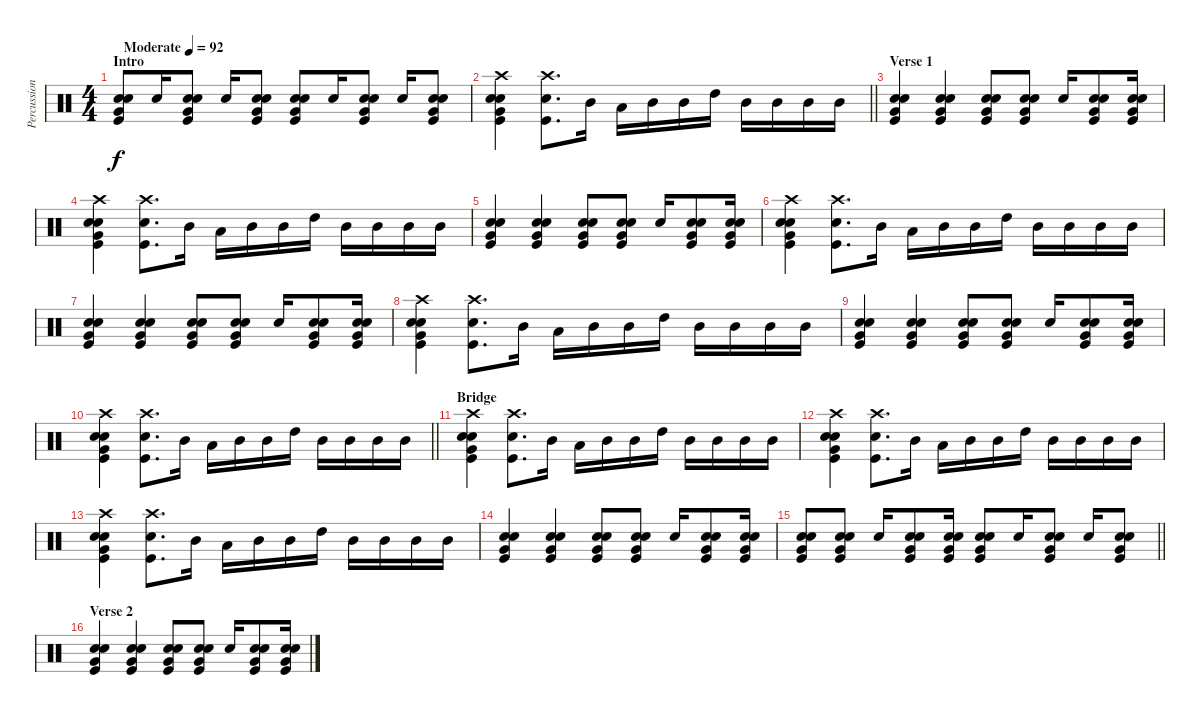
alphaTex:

\track ("Percussions" "Percussion") {instrument percussion}
\staff {score}
\articulation defaults
\ts (4 4)
\section ("" "Intro")
\tempo (92 "Moderate")
\clef neutral
\ks c
("Kick (hit)" "Snare (hit) 2" "Electric Snare (hit)" "Very Low Tom (hit)").8{dy f} "Snare (hit) 2".16 ("Kick (hit)" "Snare (hit) 2" "Electric Snare (hit)" "Very Low Tom (hit)").8 "Snare (hit) 2".16 ("Kick (hit)" "Snare (hit) 2" "Electric Snare (hit)" "Very Low Tom (hit)").8 ("Kick (hit)" "Snare (hit) 2" "Electric Snare (hit)" "Very Low Tom (hit)").8 "Snare (hit) 2".16 ("Kick (hit)" "Snare (hit) 2" "Electric Snare (hit)" "Very Low Tom (hit)").8 "Snare (hit) 2".16 ("Kick (hit)" "Snare (hit) 2" "Electric Snare (hit)" "Very Low Tom (hit)").8 |
\barLineRight lightlight
("Kick (hit)" "Snare (hit) 2" "Crash high (hit)" "Electric Snare (hit)" "Very Low Tom (hit)").4 ("Kick (hit)" "Snare (hit) 2" "Crash high (hit)").8{d} "Mid Tom (hit)".16 "Low Tom (hit)".16 "Mid Tom (hit)".16 "Mid Tom (hit)".16 "High Tom (hit)".16 "Mid Tom (hit)".16 "Mid Tom (hit)".16 "Mid Tom (hit)".16 "Mid Tom (hit)".16 |
\section ("" "Verse 1")
("Kick (hit)" "Snare (hit) 2" "Electric Snare (hit)" "Very Low Tom (hit)").4 ("Kick (hit)" "Snare (hit) 2" "Electric Snare (hit)" "Very Low Tom (hit)").4 ("Kick (hit)" "Snare (hit) 2" "Electric Snare (hit)" "Very Low Tom (hit)").8 ("Kick (hit)" "Snare (hit) 2" "Electric Snare (hit)" "Very Low Tom (hit)").8 "Snare (hit) 2".16 ("Kick (hit)" "Snare (hit) 2" "Electric Snare (hit)" "Very Low Tom (hit)").8 ("Kick (hit)" "Snare (hit) 2" "Electric Snare (hit)" "Very Low Tom (hit)").16 |
("Kick (hit)" "Snare (hit) 2" "Crash high (hit)" "Electric Snare (hit)" "Very Low Tom (hit)").4 ("Kick (hit)" "Snare (hit) 2" "Crash high (hit)").8{d} "Mid Tom (hit)".16 "Low Tom (hit)".16 "Mid Tom (hit)".16 "Mid Tom (hit)".16 "High Tom (hit)".16 "Mid Tom (hit)".16 "Mid Tom (hit)".16 "Mid Tom (hit)".16 "Mid Tom (hit)".16 |
("Kick (hit)" "Snare (hit) 2" "Electric Snare (hit)" "Very Low Tom (hit)").4 ("Kick (hit)" "Snare (hit) 2" "Electric Snare (hit)" "Very Low Tom (hit)").4 ("Kick (hit)" "Snare (hit) 2" "Electric Snare (hit)" "Very Low Tom (hit)").8 ("Kick (hit)" "Snare (hit) 2" "Electric Snare (hit)" "Very Low Tom (hit)").8 "Snare (hit) 2".16 ("Kick (hit)" "Snare (hit) 2" "Electric Snare (hit)" "Very Low Tom (hit)").8 ("Kick (hit)" "Snare (hit) 2" "Electric Snare (hit)" "Very Low Tom (hit)").16 |
("Kick (hit)" "Snare (hit) 2" "Crash high (hit)" "Electric Snare (hit)" "Very Low Tom (hit)").4 ("Kick (hit)" "Snare (hit) 2" "Crash high (hit)").8{d} "Mid Tom (hit)".16 "Low Tom (hit)".16 "Mid Tom (hit)".16 "Mid Tom (hit)".16 "High Tom (hit)".16 "Mid Tom (hit)".16 "Mid Tom (hit)".16 "Mid Tom (hit)".16 "Mid Tom (hit)".16 |
("Kick (hit)" "Snare (hit) 2" "Electric Snare (hit)" "Very Low Tom (hit)").4 ("Kick (hit)" "Snare (hit) 2" "Electric Snare (hit)" "Very Low Tom (hit)").4 ("Kick (hit)" "Snare (hit) 2" "Electric Snare (hit)" "Very Low Tom (hit)").8 ("Kick (hit)" "Snare (hit) 2" "Electric Snare (hit)" "Very Low Tom (hit)").8 "Snare (hit) 2".16 ("Kick (hit)" "Snare (hit) 2" "Electric Snare (hit)" "Very Low Tom (hit)").8 ("Kick (hit)" "Snare (hit) 2" "Electric Snare (hit)" "Very Low Tom (hit)").16 |
("Kick (hit)" "Snare (hit) 2" "Crash high (hit)" "Electric Snare (hit)" "Very Low Tom (hit)").4 ("Kick (hit)" "Snare (hit) 2" "Crash high (hit)").8{d} "Mid Tom (hit)".16 "Low Tom (hit)".16 "Mid Tom (hit)".16 "Mid Tom (hit)".16 "High Tom (hit)".16 "Mid Tom (hit)".16 "Mid Tom (hit)".16 "Mid Tom (hit)".16 "Mid Tom (hit)".16 |
("Kick (hit)" "Snare (hit) 2" "Electric Snare (hit)" "Very Low Tom (hit)").4 ("Kick (hit)" "Snare (hit) 2" "Electric Snare (hit)" "Very Low Tom (hit)").4 ("Kick (hit)" "Snare (hit) 2" "Electric Snare (hit)" "Very Low Tom (hit)").8 ("Kick (hit)" "Snare (hit) 2" "Electric Snare (hit)" "Very Low Tom (hit)").8 "Snare (hit) 2".16 ("Kick (hit)" "Snare (hit) 2" "Electric Snare (hit)" "Very Low Tom (hit)").8 ("Kick (hit)" "Snare (hit) 2" "Electric Snare (hit)" "Very Low Tom (hit)").16 |
\barLineRight lightlight
("Kick (hit)" "Snare (hit) 2" "Crash high (hit)" "Electric Snare (hit)" "Very Low Tom (hit)").4 ("Kick (hit)" "Snare (hit) 2" "Crash high (hit)").8{d} "Mid Tom (hit)".16 "Low Tom (hit)".16 "Mid Tom (hit)".16 "Mid Tom (hit)".16 "High Tom (hit)".16 "Mid Tom (hit)".16 "Mid Tom (hit)".16 "Mid Tom (hit)".16 "Mid Tom (hit)".16 |
\section ("" "Bridge")
("Kick (hit)" "Snare (hit) 2" "Crash high (hit)" "Electric Snare (hit)" "Very Low Tom (hit)").4 ("Kick (hit)" "Snare (hit) 2" "Crash high (hit)").8{d} "Mid Tom (hit)".16 "Low Tom (hit)".16 "Mid Tom (hit)".16 "Mid Tom (hit)".16 "High Tom (hit)".16 "Mid Tom (hit)".16 "Mid Tom (hit)".16 "Mid Tom (hit)".16 "Mid Tom (hit)".16 |
("Kick (hit)" "Snare (hit) 2" "Crash high (hit)" "Electric Snare (hit)" "Very Low Tom (hit)").4 ("Kick (hit)" "Snare (hit) 2" "Crash high (hit)").8{d} "Mid Tom (hit)".16 "Low Tom (hit)".16 "Mid Tom (hit)".16 "Mid Tom (hit)".16 "High Tom (hit)".16 "Mid Tom (hit)".16 "Mid Tom (hit)".16 "Mid Tom (hit)".16 "Mid Tom (hit)".16 |
("Kick (hit)" "Snare (hit) 2" "Crash high (hit)" "Electric Snare (hit)" "Very Low Tom (hit)").4 ("Kick (hit)" "Snare (hit) 2" "Crash high (hit)").8{d} "Mid Tom (hit)".16 "Low Tom (hit)".16 "Mid Tom (hit)".16 "Mid Tom (hit)".16 "High Tom (hit)".16 "Mid Tom (hit)".16 "Mid Tom (hit)".16 "Mid Tom (hit)".16 "Mid Tom (hit)".16 |
("Kick (hit)" "Snare (hit) 2" "Electric Snare (hit)" "Very Low Tom (hit)").4 ("Kick (hit)" "Snare (hit) 2" "Electric Snare (hit)" "Very Low Tom (hit)").4 ("Kick (hit)" "Snare (hit) 2" "Electric Snare (hit)" "Very Low Tom (hit)").8 ("Kick (hit)" "Snare (hit) 2" "Electric Snare (hit)" "Very Low Tom (hit)").8 "Snare (hit) 2".16 ("Kick (hit)" "Snare (hit) 2" "Electric Snare (hit)" "Very Low Tom (hit)").8 ("Kick (hit)" "Snare (hit) 2" "Electric Snare (hit)" "Very Low Tom (hit)").16 |
\barLineRight lightlight
("Kick (hit)" "Snare (hit) 2" "Electric Snare (hit)" "Very Low Tom (hit)").8 ("Kick (hit)" "Snare (hit) 2" "Electric Snare (hit)" "Very Low Tom (hit)").8 "Snare (hit) 2".16 ("Kick (hit)" "Snare (hit) 2" "Electric Snare (hit)" "Very Low Tom (hit)").8 ("Kick (hit)" "Snare (hit) 2" "Electric Snare (hit)" "Very Low Tom (hit)").16 ("Kick (hit)" "Snare (hit) 2" "Electric Snare (hit)" "Very Low Tom (hit)").8 "Snare (hit) 2".16 ("Kick (hit)" "Snare (hit) 2" "Electric Snare (hit)" "Very Low Tom (hit)").8 "Snare (hit) 2".16 ("Kick (hit)" "Snare (hit) 2" "Electric Snare (hit)" "Very Low Tom (hit)").8 |
\section ("" "Verse 2")
("Kick (hit)" "Snare (hit) 2" "Electric Snare (hit)" "Very Low Tom (hit)").4 ("Kick (hit)" "Snare (hit) 2" "Electric Snare (hit)" "Very Low Tom (hit)").4 ("Kick (hit)" "Snare (hit) 2" "Electric Snare (hit)" "Very Low Tom (hit)").8 ("Kick (hit)" "Snare (hit) 2" "Electric Snare (hit)" "Very Low Tom (hit)").8 "Snare (hit) 2".16 ("Kick (hit)" "Snare (hit) 2" "Electric Snare (hit)" "Very Low Tom (hit)").8 ("Kick (hit)" "Snare (hit) 2" "Electric Snare (hit)" "Very Low Tom (hit)").16
